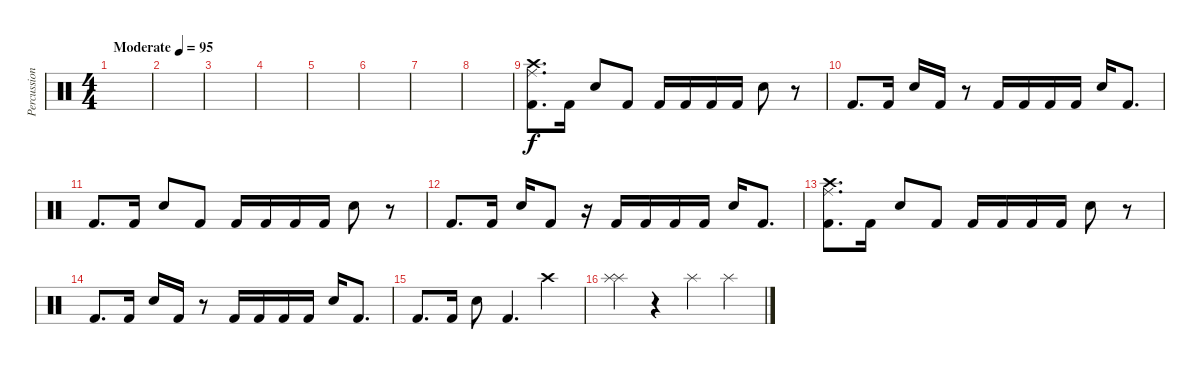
\track ("Percussions" "Percussion") {instrument percussion}
\staff {score}
\articulation defaults
\ts (4 4)
\tempo (95 "Moderate")
\clef neutral
\ks c
|
|
|
|
|
|
|
|
("Crash high (hit)" "Ride (middle)" "Kick (hit) 2").8{d} "Kick (hit) 2".16 "Electric Snare (hit)".8 "Kick (hit) 2".8 "Kick (hit) 2".16 "Kick (hit) 2".16 "Kick (hit) 2".16 "Kick (hit) 2".16 "Electric Snare (hit)".8 r.8 |
"Kick (hit) 2".8{d} "Kick (hit) 2".16 "Electric Snare (hit)".16 "Kick (hit) 2".16 r.8 "Kick (hit) 2".16 "Kick (hit) 2".16 "Kick (hit) 2".16 "Kick (hit) 2".16 "Electric Snare (hit)".16 "Kick (hit) 2".8{d} |
"Kick (hit) 2".8{d} "Kick (hit) 2".16 "Electric Snare (hit)".8 "Kick (hit) 2".8 "Kick (hit) 2".16 "Kick (hit) 2".16 "Kick (hit) 2".16 "Kick (hit) 2".16 "Electric Snare (hit)".8 r.8 |
"Kick (hit) 2".8{d} "Kick (hit) 2".16 "Electric Snare (hit)".16 "Kick (hit) 2".8 r.16 "Kick (hit) 2".16 "Kick (hit) 2".16 "Kick (hit) 2".16 "Kick (hit) 2".16 "Electric Snare (hit)".16 "Kick (hit) 2".8{d} |
("Crash high (hit)" "Ride (middle)" "Kick (hit) 2").8{d} "Kick (hit) 2".16 "Electric Snare (hit)".8 "Kick (hit) 2".8 "Kick (hit) 2".16 "Kick (hit) 2".16 "Kick (hit) 2".16 "Kick (hit) 2".16 "Electric Snare (hit)".8 r.8 |
"Kick (hit) 2".8{d} "Kick (hit) 2".16 "Electric Snare (hit)".16 "Kick (hit) 2".16 r.8 "Kick (hit) 2".16 "Kick (hit) 2".16 "Kick (hit) 2".16 "Kick (hit) 2".16 "Electric Snare (hit)".16 "Kick (hit) 2".8{d} |
"Kick (hit) 2".8{d} "Kick (hit) 2".16 "Electric Snare (hit)".8 "Kick (hit) 2".4{d} "Crash high (hit)".4 |
("Splash (hit)" "Splash (hit)").4 r.4 "Splash (hit)".4 "Splash (hit)".4
